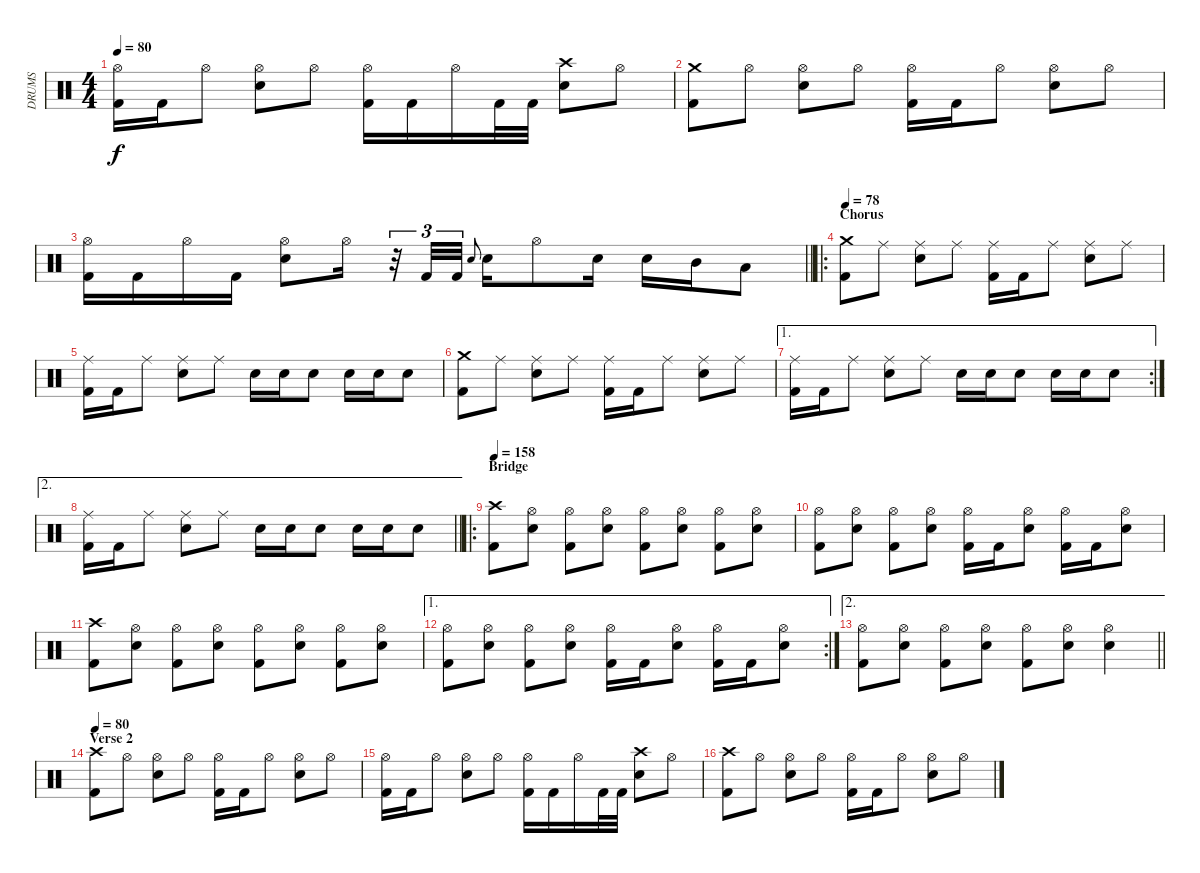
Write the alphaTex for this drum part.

\track ("DRUMS" "DRUMS") {instrument percussion}
\staff {score}
\articulation defaults
\ts (4 4)
\tempo 80
\clef neutral
\ks c
("Hi-Hat (open)" "Kick (hit) 2").16{dy f} "Kick (hit) 2".16 "Hi-Hat (open)".8 ("Hi-Hat (open)" "Snare (hit) 2").8 "Hi-Hat (open)".8 ("Hi-Hat (open)" "Kick (hit) 2").16 "Kick (hit) 2".16 "Hi-Hat (open)".16 "Kick (hit) 2".32 "Kick (hit) 2".32 ("Crash high (hit)" "Snare (hit) 2").8 "Hi-Hat (open)".8 |
("Crash medium (hit)" "Kick (hit) 2").8 "Hi-Hat (open)".8 ("Hi-Hat (open)" "Snare (hit) 2").8 "Hi-Hat (open)".8 ("Hi-Hat (open)" "Kick (hit) 2").16 "Kick (hit) 2".16 "Hi-Hat (open)".8 ("Hi-Hat (open)" "Snare (hit) 2").8 "Hi-Hat (open)".8 |
\barLineRight lightlight
("Hi-Hat (open)" "Kick (hit) 2").16 "Kick (hit) 2".16 "Hi-Hat (open)".16 "Kick (hit) 2".16 ("Hi-Hat (open)" "Snare (hit) 2").8 "Hi-Hat (open)".16 r.32{tu (3 2)} "Kick (hit) 2".32{tu (3 2)} "Kick (hit) 2".32{tu (3 2)} "Snare (hit) 2".8{gr onbeat} "Snare (hit) 2".16 "Hi-Hat (open)".8 "Snare (hit) 2".16 "Snare (hit) 2".16 "Mid Tom (hit)".16 "Low Tom (hit)".8 |
\ro
\section ("" "Chorus")
\tempo 78
("Crash medium (hit)" "Kick (hit) 2").8 "Ride (middle)".8 ("Ride (middle)" "Snare (hit) 2").8 "Ride (middle)".8 ("Ride (middle)" "Kick (hit) 2").16 "Kick (hit) 2".16 "Ride (middle)".8 ("Ride (middle)" "Snare (hit) 2").8 "Ride (middle)".8 |
("Ride (middle)" "Kick (hit) 2").16 "Kick (hit) 2".16 "Ride (middle)".8 ("Ride (middle)" "Snare (hit) 2").8 "Ride (middle)".8 "Snare (hit) 2".16 "Snare (hit) 2".16 "Snare (hit) 2".8 "Snare (hit) 2".16 "Snare (hit) 2".16 "Snare (hit) 2".8 |
("Crash medium (hit)" "Kick (hit) 2").8 "Ride (middle)".8 ("Ride (middle)" "Snare (hit) 2").8 "Ride (middle)".8 ("Ride (middle)" "Kick (hit) 2").16 "Kick (hit) 2".16 "Ride (middle)".8 ("Ride (middle)" "Snare (hit) 2").8 "Ride (middle)".8 |
\ae 1
\rc 2
("Ride (middle)" "Kick (hit) 2").16 "Kick (hit) 2".16 "Ride (middle)".8 ("Ride (middle)" "Snare (hit) 2").8 "Ride (middle)".8 "Snare (hit) 2".16 "Snare (hit) 2".16 "Snare (hit) 2".8 "Snare (hit) 2".16 "Snare (hit) 2".16 "Snare (hit) 2".8 |
\ae 2
\barLineRight lightlight
("Ride (middle)" "Kick (hit) 2").16 "Kick (hit) 2".16 "Ride (middle)".8 ("Ride (middle)" "Snare (hit) 2").8 "Ride (middle)".8 "Snare (hit) 2".16 "Snare (hit) 2".16 "Snare (hit) 2".8 "Snare (hit) 2".16 "Snare (hit) 2".16 "Snare (hit) 2".8 |
\ro
\section ("" "Bridge")
\tempo 158
("Crash high (hit)" "Kick (hit) 2").8 ("Hi-Hat (open)" "Snare (hit) 2").8 ("Hi-Hat (open)" "Kick (hit) 2").8 ("Hi-Hat (open)" "Snare (hit) 2").8 ("Hi-Hat (open)" "Kick (hit) 2").8 ("Hi-Hat (open)" "Snare (hit) 2").8 ("Hi-Hat (open)" "Kick (hit) 2").8 ("Hi-Hat (open)" "Snare (hit) 2").8 |
("Hi-Hat (open)" "Kick (hit) 2").8 ("Hi-Hat (open)" "Snare (hit) 2").8 ("Hi-Hat (open)" "Kick (hit) 2").8 ("Hi-Hat (open)" "Snare (hit) 2").8 ("Hi-Hat (open)" "Kick (hit) 2").16 "Kick (hit) 2".16 ("Hi-Hat (open)" "Snare (hit) 2").8 ("Hi-Hat (open)" "Kick (hit) 2").16 "Kick (hit) 2".16 ("Hi-Hat (open)" "Snare (hit) 2").8 |
("Crash high (hit)" "Kick (hit) 2").8 ("Hi-Hat (open)" "Snare (hit) 2").8 ("Hi-Hat (open)" "Kick (hit) 2").8 ("Hi-Hat (open)" "Snare (hit) 2").8 ("Hi-Hat (open)" "Kick (hit) 2").8 ("Hi-Hat (open)" "Snare (hit) 2").8 ("Hi-Hat (open)" "Kick (hit) 2").8 ("Hi-Hat (open)" "Snare (hit) 2").8 |
\ae 1
\rc 2
("Hi-Hat (open)" "Kick (hit) 2").8 ("Hi-Hat (open)" "Snare (hit) 2").8 ("Hi-Hat (open)" "Kick (hit) 2").8 ("Hi-Hat (open)" "Snare (hit) 2").8 ("Hi-Hat (open)" "Kick (hit) 2").16 "Kick (hit) 2".16 ("Hi-Hat (open)" "Snare (hit) 2").8 ("Hi-Hat (open)" "Kick (hit) 2").16 "Kick (hit) 2".16 ("Hi-Hat (open)" "Snare (hit) 2").8 |
\ae 2
\barLineRight lightlight
("Hi-Hat (open)" "Kick (hit) 2").8 ("Hi-Hat (open)" "Snare (hit) 2").8 ("Hi-Hat (open)" "Kick (hit) 2").8 ("Hi-Hat (open)" "Snare (hit) 2").8 ("Hi-Hat (open)" "Kick (hit) 2").8 ("Hi-Hat (open)" "Snare (hit) 2").8 ("Hi-Hat (open)" "Snare (hit) 2").4 |
\section ("" "Verse 2")
\tempo 80
("Crash high (hit)" "Kick (hit) 2").8 "Hi-Hat (open)".8 ("Hi-Hat (open)" "Snare (hit) 2").8 "Hi-Hat (open)".8 ("Hi-Hat (open)" "Kick (hit) 2").16 "Kick (hit) 2".16 "Hi-Hat (open)".8 ("Hi-Hat (open)" "Snare (hit) 2").8 "Hi-Hat (open)".8 |
("Hi-Hat (open)" "Kick (hit) 2").16 "Kick (hit) 2".16 "Hi-Hat (open)".8 ("Hi-Hat (open)" "Snare (hit) 2").8 "Hi-Hat (open)".8 ("Hi-Hat (open)" "Kick (hit) 2").16 "Kick (hit) 2".16 "Hi-Hat (open)".16 "Kick (hit) 2".32 "Kick (hit) 2".32 ("Crash high (hit)" "Snare (hit) 2").8 "Hi-Hat (open)".8 |
("Crash high (hit)" "Kick (hit) 2").8 "Hi-Hat (open)".8 ("Hi-Hat (open)" "Snare (hit) 2").8 "Hi-Hat (open)".8 ("Hi-Hat (open)" "Kick (hit) 2").16 "Kick (hit) 2".16 "Hi-Hat (open)".8 ("Hi-Hat (open)" "Snare (hit) 2").8 "Hi-Hat (open)".8
